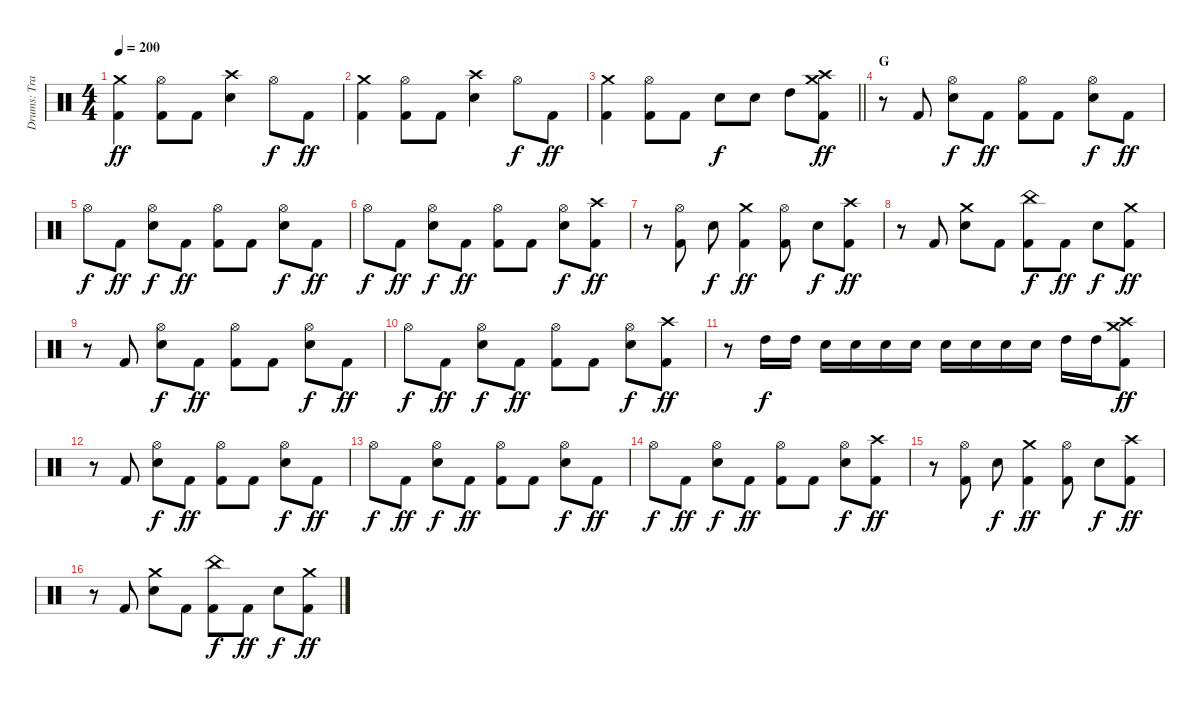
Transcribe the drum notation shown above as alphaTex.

\track ("Drums: Travis Clarke" "Drums: Tra") {instrument percussion}
\staff {score}
\articulation defaults
\ts (4 4)
\tempo 200
\clef neutral
\ks c
("Kick (hit) 2" "Crash medium (hit)").4{dy ff} ("Kick (hit) 2" "Hi-Hat (open)").8 "Kick (hit) 2".8 ("Snare (hit) 2" "Crash high (hit)").4 "Hi-Hat (open)".8{dy f} "Kick (hit) 2".8{dy ff} |
("Kick (hit) 2" "Crash medium (hit)").4 ("Kick (hit) 2" "Hi-Hat (open)").8 "Kick (hit) 2".8 ("Snare (hit) 2" "Crash high (hit)").4 "Hi-Hat (open)".8{dy f} "Kick (hit) 2".8{dy ff} |
\barLineRight lightlight
("Kick (hit) 2" "Crash medium (hit)").4 ("Kick (hit) 2" "Hi-Hat (open)").8 "Kick (hit) 2".8 "Snare (hit) 2".8{dy f} "Snare (hit) 2".8 "High Tom (hit)".8 ("Kick (hit) 2" "Crash high (hit)" "Crash medium (hit)").8{dy ff} |
\section ("" "G")
r.8 "Kick (hit) 2".8 ("Snare (hit) 2" "Hi-Hat (open)").8{dy f} "Kick (hit) 2".8{dy ff} ("Kick (hit) 2" "Hi-Hat (open)").8 "Kick (hit) 2".8 ("Snare (hit) 2" "Hi-Hat (open)").8{dy f} "Kick (hit) 2".8{dy ff} |
"Hi-Hat (open)".8{dy f} "Kick (hit) 2".8{dy ff} ("Snare (hit) 2" "Hi-Hat (open)").8{dy f} "Kick (hit) 2".8{dy ff} ("Kick (hit) 2" "Hi-Hat (open)").8 "Kick (hit) 2".8 ("Snare (hit) 2" "Hi-Hat (open)").8{dy f} "Kick (hit) 2".8{dy ff} |
"Hi-Hat (open)".8{dy f} "Kick (hit) 2".8{dy ff} ("Snare (hit) 2" "Hi-Hat (open)").8{dy f} "Kick (hit) 2".8{dy ff} ("Kick (hit) 2" "Hi-Hat (open)").8 "Kick (hit) 2".8 ("Snare (hit) 2" "Hi-Hat (open)").8{dy f} ("Kick (hit) 2" "Crash high (hit)").8{dy ff} |
r.8 ("Kick (hit) 2" "Hi-Hat (open)").8 "Snare (hit) 2".8{dy f} ("Kick (hit) 2" "Crash medium (hit)").4{dy ff} ("Kick (hit) 2" "Hi-Hat (open)").8 "Snare (hit) 2".8{dy f} ("Kick (hit) 2" "Crash high (hit)").8{dy ff} |
r.8 "Kick (hit) 2".8 ("Snare (hit) 2" "Crash medium (hit)").8 "Kick (hit) 2".8 ("Kick (hit) 2" "China (hit)").8{dy f} "Kick (hit) 2".8{dy ff} "Snare (hit) 2".8{dy f} ("Kick (hit) 2" "Crash medium (hit)").8{dy ff} |
r.8 "Kick (hit) 2".8 ("Snare (hit) 2" "Hi-Hat (open)").8{dy f} "Kick (hit) 2".8{dy ff} ("Kick (hit) 2" "Hi-Hat (open)").8 "Kick (hit) 2".8 ("Snare (hit) 2" "Hi-Hat (open)").8{dy f} "Kick (hit) 2".8{dy ff} |
"Hi-Hat (open)".8{dy f} "Kick (hit) 2".8{dy ff} ("Snare (hit) 2" "Hi-Hat (open)").8{dy f} "Kick (hit) 2".8{dy ff} ("Kick (hit) 2" "Hi-Hat (open)").8 "Kick (hit) 2".8 ("Snare (hit) 2" "Hi-Hat (open)").8{dy f} ("Kick (hit) 2" "Crash high (hit)").8{dy ff} |
r.8 "High Tom (hit)".16{dy f} "High Tom (hit)".16 "Snare (hit) 2".16 "Snare (hit) 2".16 "Snare (hit) 2".16 "Snare (hit) 2".16 "Snare (hit) 2".16 "Snare (hit) 2".16 "Snare (hit) 2".16 "Snare (hit) 2".16 "High Tom (hit)".16 "High Tom (hit)".16 ("Kick (hit) 2" "Crash high (hit)" "Crash medium (hit)").8{dy ff} |
r.8 "Kick (hit) 2".8 ("Snare (hit) 2" "Hi-Hat (open)").8{dy f} "Kick (hit) 2".8{dy ff} ("Kick (hit) 2" "Hi-Hat (open)").8 "Kick (hit) 2".8 ("Snare (hit) 2" "Hi-Hat (open)").8{dy f} "Kick (hit) 2".8{dy ff} |
"Hi-Hat (open)".8{dy f} "Kick (hit) 2".8{dy ff} ("Snare (hit) 2" "Hi-Hat (open)").8{dy f} "Kick (hit) 2".8{dy ff} ("Kick (hit) 2" "Hi-Hat (open)").8 "Kick (hit) 2".8 ("Snare (hit) 2" "Hi-Hat (open)").8{dy f} "Kick (hit) 2".8{dy ff} |
"Hi-Hat (open)".8{dy f} "Kick (hit) 2".8{dy ff} ("Snare (hit) 2" "Hi-Hat (open)").8{dy f} "Kick (hit) 2".8{dy ff} ("Kick (hit) 2" "Hi-Hat (open)").8 "Kick (hit) 2".8 ("Snare (hit) 2" "Hi-Hat (open)").8{dy f} ("Kick (hit) 2" "Crash high (hit)").8{dy ff} |
r.8 ("Kick (hit) 2" "Hi-Hat (open)").8 "Snare (hit) 2".8{dy f} ("Kick (hit) 2" "Crash medium (hit)").4{dy ff} ("Kick (hit) 2" "Hi-Hat (open)").8 "Snare (hit) 2".8{dy f} ("Kick (hit) 2" "Crash high (hit)").8{dy ff} |
r.8 "Kick (hit) 2".8 ("Snare (hit) 2" "Crash medium (hit)").8 "Kick (hit) 2".8 ("Kick (hit) 2" "China (hit)").8{dy f} "Kick (hit) 2".8{dy ff} "Snare (hit) 2".8{dy f} ("Kick (hit) 2" "Crash medium (hit)").8{dy ff}
